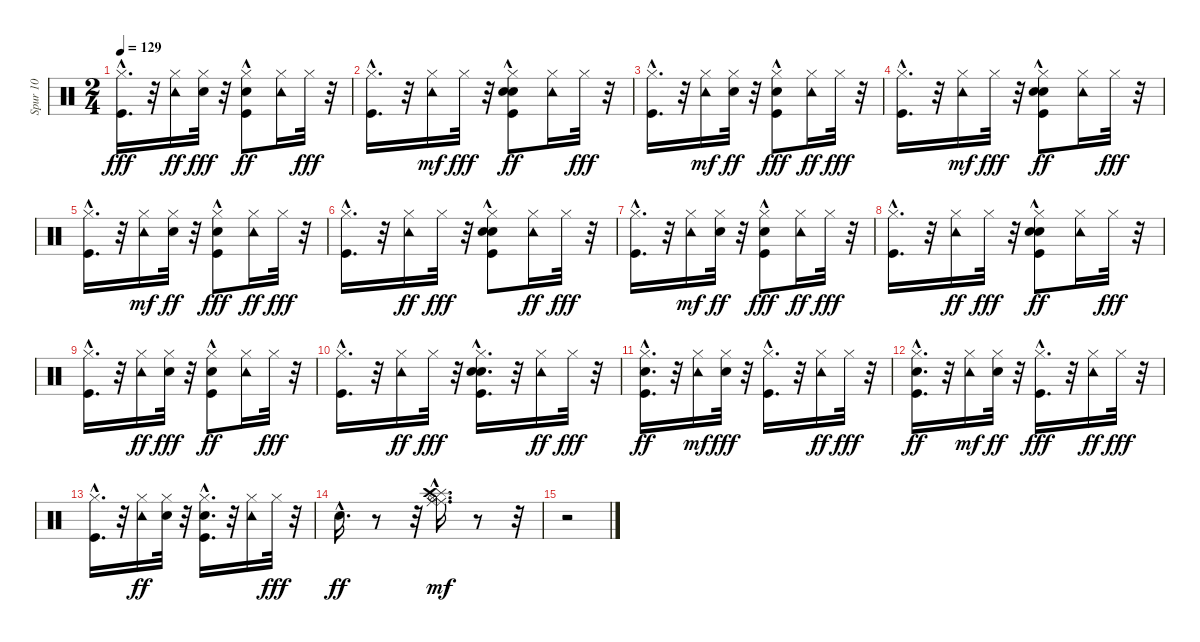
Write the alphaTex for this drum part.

\track ("Spur 10" "Spur 10") {instrument percussion}
\staff {score}
\articulation defaults
\ts (2 4)
\tempo 129
\clef neutral
\ks c
("Hi-Hat (closed)" "Kick (hit)"{hac}).16{d dy fff} r.32 ("Tambourine (hit)" "Hi-Hat (closed)").16{dy ff} ("Snare (hit) 2" "Hi-Hat (closed)").32{dy fff} r.32 ("Hi-Hat (closed)" "Kick (hit)"{hac} "Hand Clap (hit)"{hac}).8{dy ff} ("Hi-Hat (closed)" "Tambourine (hit)").16 "Hi-Hat (closed)".32{dy fff} r.32 |
("Kick (hit)"{hac} "Hi-Hat (closed)").16{d} r.32 ("Hi-Hat (closed)" "Tambourine (hit)").16{dy mf} "Hi-Hat (closed)".32{dy fff} r.32 ("Hi-Hat (closed)" "Hand Clap (hit)" "Kick (hit)"{hac} "Snare (hit) 2").8{dy ff} ("Hi-Hat (closed)" "Tambourine (hit)").16 "Hi-Hat (closed)".32{dy fff} r.32 |
("Hi-Hat (closed)" "Kick (hit)"{hac}).16{d} r.32 ("Hi-Hat (closed)" "Tambourine (hit)").16{dy mf} ("Hi-Hat (closed)" "Snare (hit) 2").32{dy ff} r.32 ("Hi-Hat (closed)" "Hand Clap (hit)" "Kick (hit)"{hac}).8{dy fff} ("Tambourine (hit)" "Hi-Hat (closed)").16{dy ff} "Hi-Hat (closed)".32{dy fff} r.32 |
("Kick (hit)"{hac} "Hi-Hat (closed)").16{d} r.32 ("Hi-Hat (closed)" "Tambourine (hit)").16{dy mf} "Hi-Hat (closed)".32{dy fff} r.32 ("Kick (hit)"{hac} "Snare (hit) 2" "Hand Clap (hit)" "Hi-Hat (closed)").8{dy ff} ("Tambourine (hit)" "Hi-Hat (closed)").16 "Hi-Hat (closed)".32{dy fff} r.32 |
("Kick (hit)"{hac} "Hi-Hat (closed)").16{d} r.32 ("Hi-Hat (closed)" "Tambourine (hit)").16{dy mf} ("Hi-Hat (closed)" "Snare (hit) 2").32{dy ff} r.32 ("Hand Clap (hit)"{hac} "Kick (hit)"{hac} "Hi-Hat (closed)").8{dy fff} ("Hi-Hat (closed)" "Tambourine (hit)").16{dy ff} "Hi-Hat (closed)".32{dy fff} r.32 |
("Hi-Hat (closed)" "Kick (hit)"{hac}).16{d} r.32 ("Tambourine (hit)" "Hi-Hat (closed)").16{dy ff} "Hi-Hat (closed)".32{dy fff} r.32 ("Hi-Hat (closed)" "Hand Clap (hit)" "Snare (hit) 2" "Kick (hit)"{hac}).8 ("Tambourine (hit)" "Hi-Hat (closed)").16{dy ff} "Hi-Hat (closed)".32{dy fff} r.32 |
("Kick (hit)"{hac} "Hi-Hat (closed)").16{d} r.32 ("Hi-Hat (closed)" "Tambourine (hit)").16{dy mf} ("Hi-Hat (closed)" "Snare (hit) 2").32{dy ff} r.32 ("Hand Clap (hit)" "Kick (hit)"{hac} "Hi-Hat (closed)").8{dy fff} ("Tambourine (hit)" "Hi-Hat (closed)").16{dy ff} "Hi-Hat (closed)".32{dy fff} r.32 |
("Kick (hit)"{hac} "Hi-Hat (closed)").16{d} r.32 ("Tambourine (hit)" "Hi-Hat (closed)").16{dy ff} "Hi-Hat (closed)".32{dy fff} r.32 ("Kick (hit)"{hac} "Hi-Hat (closed)" "Snare (hit) 2" "Hand Clap (hit)").8{dy ff} ("Tambourine (hit)" "Hi-Hat (closed)").16 "Hi-Hat (closed)".32{dy fff} r.32 |
("Kick (hit)"{hac} "Hi-Hat (closed)").16{d} r.32 ("Tambourine (hit)" "Hi-Hat (closed)").16{dy ff} ("Snare (hit) 2" "Hi-Hat (closed)").32{dy fff} r.32 ("Kick (hit)"{hac} "Hi-Hat (closed)" "Hand Clap (hit)"{hac}).8{dy ff} ("Hi-Hat (closed)" "Tambourine (hit)").16 "Hi-Hat (closed)".32{dy fff} r.32 |
("Kick (hit)"{hac} "Hi-Hat (closed)").16{d} r.32 ("Tambourine (hit)" "Hi-Hat (closed)").16{dy ff} "Hi-Hat (closed)".32{dy fff} r.32 ("Hi-Hat (closed)" "Snare (hit) 2" "Hand Clap (hit)"{hac} "Kick (hit)"{hac}).16{d} r.32 ("Hi-Hat (closed)" "Tambourine (hit)").16{dy ff} "Hi-Hat (closed)".32{dy fff} r.32 |
("Hi-Hat (closed)" "Kick (hit)"{hac} "Hand Clap (hit)").16{d dy ff} r.32 ("Hi-Hat (closed)" "Tambourine (hit)").16{dy mf} ("Snare (hit) 2" "Hi-Hat (closed)").32{dy fff} r.32 ("Kick (hit)"{hac} "Hi-Hat (closed)").16{d} r.32 ("Tambourine (hit)" "Hi-Hat (closed)").16{dy ff} "Hi-Hat (closed)".32{dy fff} r.32 |
("Kick (hit)"{hac} "Hi-Hat (closed)" "Hand Clap (hit)").16{d dy ff} r.32 ("Hi-Hat (closed)" "Tambourine (hit)").16{dy mf} ("Hi-Hat (closed)" "Snare (hit) 2").32{dy ff} r.32 ("Hi-Hat (closed)" "Kick (hit)"{hac}).16{d dy fff} r.32 ("Tambourine (hit)" "Hi-Hat (closed)").16{dy ff} "Hi-Hat (closed)".32{dy fff} r.32 |
("Hi-Hat (closed)" "Kick (hit)"{hac}).16{d} r.32 ("Tambourine (hit)" "Hi-Hat (closed)").16{dy ff} ("Hi-Hat (closed)" "Snare (hit) 2").32 r.32 ("Kick (hit)"{hac} "Hand Clap (hit)" "Hi-Hat (closed)").16{d} r.32 ("Tambourine (hit)" "Hi-Hat (closed)").16 "Hi-Hat (closed)".32{dy fff} r.32 |
"Hand Clap (hit)"{hac}.16{d dy ff} r.8 r.32 ("Ride (middle)"{hac} "Ride (middle)"{hac} "Splash (hit)"{hac} "Crash high (hit)"{hac} "Hi-Hat (open)"{hac}).16{d dy mf} r.8 r.32 |
r.2
